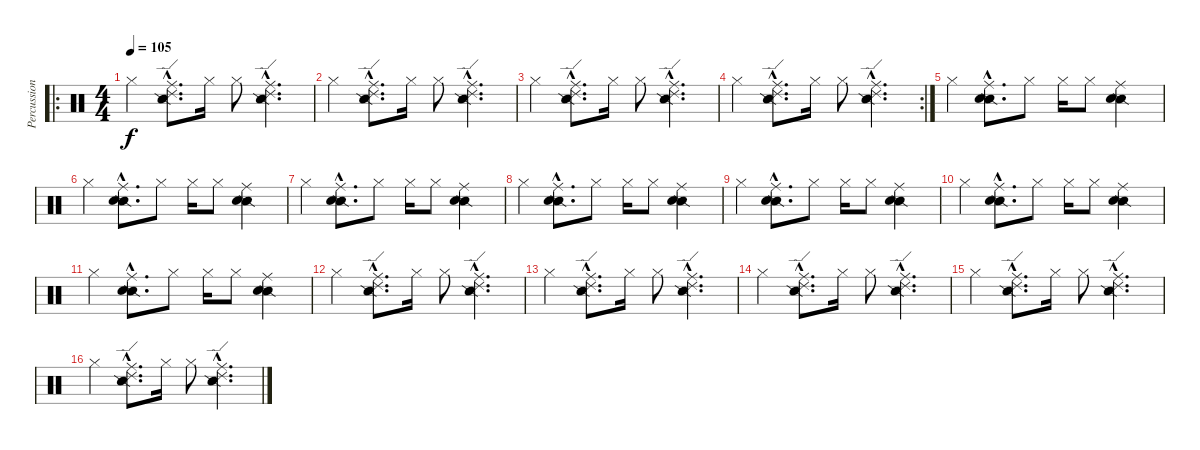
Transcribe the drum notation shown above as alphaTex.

\track ("Percussion" "Percussion") {instrument percussion}
\staff {score}
\articulation defaults
\ro
\ts (4 4)
\tempo 105
\clef neutral
\ks c "Hi-Hat (closed)".4{dy f}
("Snare (side stick) 2"{hac} "Ride (middle)"{hac} "Ride (edge) 2"{hac}).8{d} "Hi-Hat (closed)".16 "Hi-Hat (closed)".8 ("Snare (side stick) 2"{hac} "Ride (middle)"{hac} "Ride (edge) 2"{hac}).4{d} |
"Hi-Hat (closed)".4 ("Snare (side stick) 2"{hac} "Ride (middle)"{hac} "Ride (edge) 2"{hac}).8{d} "Hi-Hat (closed)".16 "Hi-Hat (closed)".8 ("Snare (side stick) 2"{hac} "Ride (middle)"{hac} "Ride (edge) 2"{hac}).4{d} |
"Hi-Hat (closed)".4 ("Snare (side stick) 2"{hac} "Ride (middle)"{hac} "Ride (edge) 2"{hac}).8{d} "Hi-Hat (closed)".16 "Hi-Hat (closed)".8 ("Snare (side stick) 2"{hac} "Ride (middle)"{hac} "Ride (edge) 2"{hac}).4{d} |
\rc 2 "Hi-Hat (closed)".4
("Snare (side stick) 2"{hac} "Ride (middle)"{hac} "Ride (edge) 2"{hac}).8{d} "Hi-Hat (closed)".16 "Hi-Hat (closed)".8 ("Snare (side stick) 2"{hac} "Ride (middle)"{hac} "Ride (edge) 2"{hac}).4{d} |
"Hi-Hat (closed)".4 ("Snare (side stick) 2"{hac} "Ride (middle)"{hac} "Snare (hit) 2"{hac}).8{d} "Hi-Hat (closed)".8 "Hi-Hat (closed)".16 "Hi-Hat (closed)".8 ("Snare (side stick) 2" "Ride (middle)" "Snare (hit) 2").4 |
"Hi-Hat (closed)".4 ("Snare (side stick) 2"{hac} "Ride (middle)"{hac} "Snare (hit) 2"{hac}).8{d} "Hi-Hat (closed)".8 "Hi-Hat (closed)".16 "Hi-Hat (closed)".8 ("Snare (side stick) 2" "Ride (middle)" "Snare (hit) 2").4 |
"Hi-Hat (closed)".4 ("Snare (side stick) 2"{hac} "Ride (middle)"{hac} "Snare (hit) 2"{hac}).8{d} "Hi-Hat (closed)".8 "Hi-Hat (closed)".16 "Hi-Hat (closed)".8 ("Snare (side stick) 2" "Ride (middle)" "Snare (hit) 2").4 |
"Hi-Hat (closed)".4 ("Snare (side stick) 2"{hac} "Ride (middle)"{hac} "Snare (hit) 2"{hac}).8{d} "Hi-Hat (closed)".8 "Hi-Hat (closed)".16 "Hi-Hat (closed)".8 ("Snare (side stick) 2" "Ride (middle)" "Snare (hit) 2").4 |
"Hi-Hat (closed)".4 ("Snare (side stick) 2"{hac} "Ride (middle)"{hac} "Snare (hit) 2"{hac}).8{d} "Hi-Hat (closed)".8 "Hi-Hat (closed)".16 "Hi-Hat (closed)".8 ("Snare (side stick) 2" "Ride (middle)" "Snare (hit) 2").4 |
"Hi-Hat (closed)".4 ("Snare (side stick) 2"{hac} "Ride (middle)"{hac} "Snare (hit) 2"{hac}).8{d} "Hi-Hat (closed)".8 "Hi-Hat (closed)".16 "Hi-Hat (closed)".8 ("Snare (side stick) 2" "Ride (middle)" "Snare (hit) 2").4 |
"Hi-Hat (closed)".4 ("Snare (side stick) 2"{hac} "Ride (middle)"{hac} "Snare (hit) 2"{hac}).8{d} "Hi-Hat (closed)".8 "Hi-Hat (closed)".16 "Hi-Hat (closed)".8 ("Snare (side stick) 2" "Ride (middle)" "Snare (hit) 2").4 |
"Hi-Hat (closed)".4 ("Snare (side stick) 2"{hac} "Ride (middle)"{hac} "Ride (edge) 2"{hac}).8{d} "Hi-Hat (closed)".16 "Hi-Hat (closed)".8 ("Snare (side stick) 2"{hac} "Ride (middle)"{hac} "Ride (edge) 2"{hac}).4{d} |
"Hi-Hat (closed)".4 ("Snare (side stick) 2"{hac} "Ride (middle)"{hac} "Ride (edge) 2"{hac}).8{d} "Hi-Hat (closed)".16 "Hi-Hat (closed)".8 ("Snare (side stick) 2"{hac} "Ride (middle)"{hac} "Ride (edge) 2"{hac}).4{d} |
"Hi-Hat (closed)".4 ("Snare (side stick) 2"{hac} "Ride (middle)"{hac} "Ride (edge) 2"{hac}).8{d} "Hi-Hat (closed)".16 "Hi-Hat (closed)".8 ("Snare (side stick) 2"{hac} "Ride (middle)"{hac} "Ride (edge) 2"{hac}).4{d} |
"Hi-Hat (closed)".4 ("Snare (side stick) 2"{hac} "Ride (middle)"{hac} "Ride (edge) 2"{hac}).8{d} "Hi-Hat (closed)".16 "Hi-Hat (closed)".8 ("Snare (side stick) 2"{hac} "Ride (middle)"{hac} "Ride (edge) 2"{hac}).4{d} |
"Hi-Hat (closed)".4 ("Snare (side stick) 2"{hac} "Ride (middle)"{hac} "Ride (edge) 2"{hac}).8{d} "Hi-Hat (closed)".16 "Hi-Hat (closed)".8 ("Snare (side stick) 2"{hac} "Ride (middle)"{hac} "Ride (edge) 2"{hac}).4{d}
